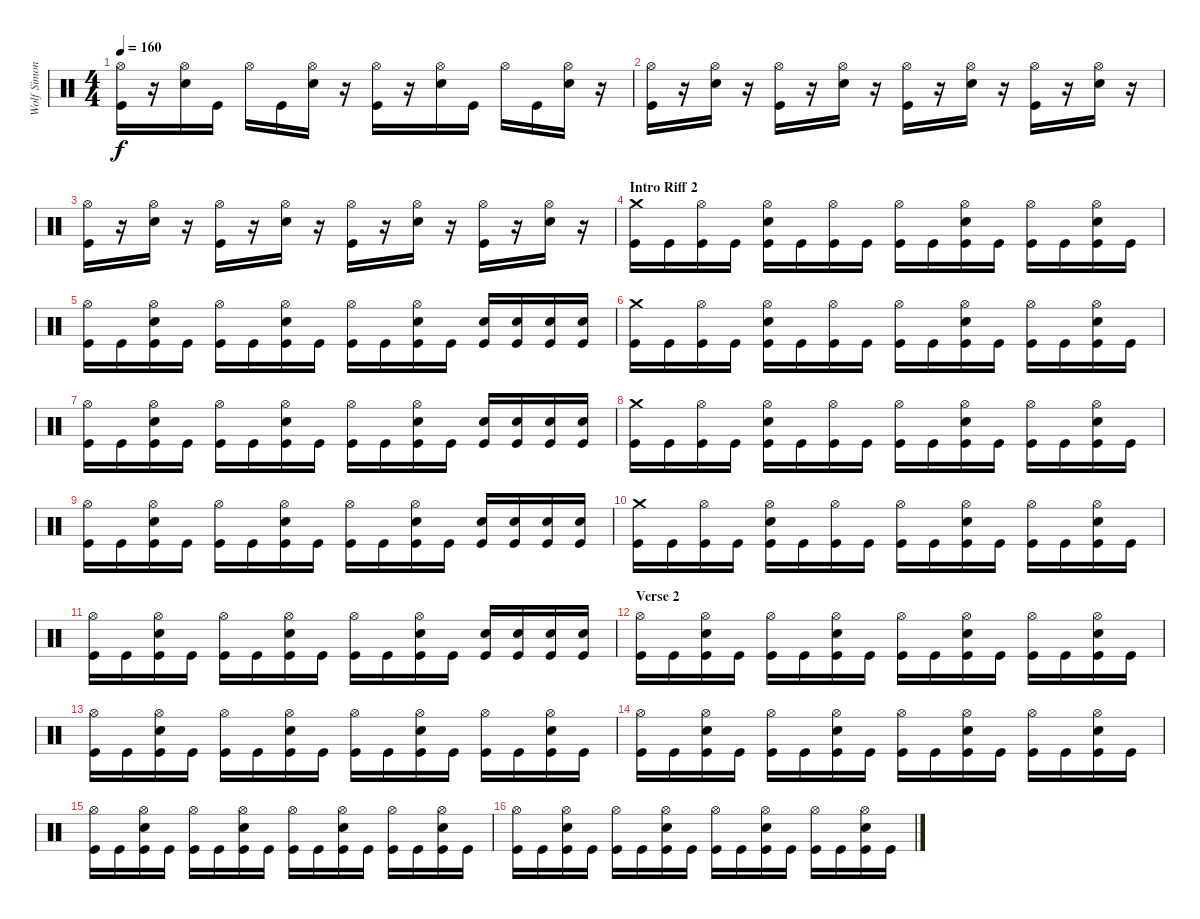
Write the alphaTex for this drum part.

\track ("Wolf Simons" "Wolf Simon") {instrument percussion}
\staff {score}
\articulation defaults
\ts (4 4)
\tempo 160
\clef neutral
\ks c
("Hi-Hat (open)" "Kick (hit)").16{dy f} r.16 ("Hi-Hat (open)" "Electric Snare (hit)").16 "Kick (hit)".16 "Hi-Hat (open)".16 "Kick (hit)".16 ("Hi-Hat (open)" "Electric Snare (hit)").16 r.16 ("Hi-Hat (open)" "Kick (hit)").16 r.16 ("Hi-Hat (open)" "Electric Snare (hit)").16 "Kick (hit)".16 "Hi-Hat (open)".16 "Kick (hit)".16 ("Hi-Hat (open)" "Electric Snare (hit)").16 r.16 |
("Hi-Hat (open)" "Kick (hit)").16 r.16 ("Hi-Hat (open)" "Electric Snare (hit)").16 r.16 ("Hi-Hat (open)" "Kick (hit)").16 r.16 ("Hi-Hat (open)" "Electric Snare (hit)").16 r.16 ("Hi-Hat (open)" "Kick (hit)").16 r.16 ("Hi-Hat (open)" "Electric Snare (hit)").16 r.16 ("Hi-Hat (open)" "Kick (hit)").16 r.16 ("Hi-Hat (open)" "Electric Snare (hit)").16 r.16 |
("Hi-Hat (open)" "Kick (hit)").16 r.16 ("Hi-Hat (open)" "Electric Snare (hit)").16 r.16 ("Hi-Hat (open)" "Kick (hit)").16 r.16 ("Hi-Hat (open)" "Electric Snare (hit)").16 r.16 ("Hi-Hat (open)" "Kick (hit)").16 r.16 ("Hi-Hat (open)" "Electric Snare (hit)").16 r.16 ("Hi-Hat (open)" "Kick (hit)").16 r.16 ("Hi-Hat (open)" "Electric Snare (hit)").16 r.16 |
\section ("" "Intro Riff 2")
("Crash medium (hit)" "Kick (hit)").16 "Kick (hit)".16 ("Hi-Hat (open)" "Kick (hit)").16 "Kick (hit)".16 ("Hi-Hat (open)" "Electric Snare (hit)" "Kick (hit)").16 "Kick (hit)".16 ("Hi-Hat (open)" "Kick (hit)").16 "Kick (hit)".16 ("Hi-Hat (open)" "Kick (hit)").16 "Kick (hit)".16 ("Hi-Hat (open)" "Electric Snare (hit)" "Kick (hit)").16 "Kick (hit)".16 ("Hi-Hat (open)" "Kick (hit)").16 "Kick (hit)".16 ("Hi-Hat (open)" "Electric Snare (hit)" "Kick (hit)").16 "Kick (hit)".16 |
("Hi-Hat (open)" "Kick (hit)").16 "Kick (hit)".16 ("Hi-Hat (open)" "Electric Snare (hit)" "Kick (hit)").16 "Kick (hit)".16 ("Hi-Hat (open)" "Kick (hit)").16 "Kick (hit)".16 ("Hi-Hat (open)" "Electric Snare (hit)" "Kick (hit)").16 "Kick (hit)".16 ("Hi-Hat (open)" "Kick (hit)").16 "Kick (hit)".16 ("Hi-Hat (open)" "Electric Snare (hit)" "Kick (hit)").16 "Kick (hit)".16 ("Electric Snare (hit)" "Kick (hit)").16 ("Electric Snare (hit)" "Kick (hit)").16 ("Electric Snare (hit)" "Kick (hit)").16 ("Electric Snare (hit)" "Kick (hit)").16 |
("Crash medium (hit)" "Kick (hit)").16 "Kick (hit)".16 ("Hi-Hat (open)" "Kick (hit)").16 "Kick (hit)".16 ("Hi-Hat (open)" "Electric Snare (hit)" "Kick (hit)").16 "Kick (hit)".16 ("Hi-Hat (open)" "Kick (hit)").16 "Kick (hit)".16 ("Hi-Hat (open)" "Kick (hit)").16 "Kick (hit)".16 ("Hi-Hat (open)" "Electric Snare (hit)" "Kick (hit)").16 "Kick (hit)".16 ("Hi-Hat (open)" "Kick (hit)").16 "Kick (hit)".16 ("Hi-Hat (open)" "Electric Snare (hit)" "Kick (hit)").16 "Kick (hit)".16 |
("Hi-Hat (open)" "Kick (hit)").16 "Kick (hit)".16 ("Hi-Hat (open)" "Electric Snare (hit)" "Kick (hit)").16 "Kick (hit)".16 ("Hi-Hat (open)" "Kick (hit)").16 "Kick (hit)".16 ("Hi-Hat (open)" "Electric Snare (hit)" "Kick (hit)").16 "Kick (hit)".16 ("Hi-Hat (open)" "Kick (hit)").16 "Kick (hit)".16 ("Hi-Hat (open)" "Electric Snare (hit)" "Kick (hit)").16 "Kick (hit)".16 ("Electric Snare (hit)" "Kick (hit)").16 ("Electric Snare (hit)" "Kick (hit)").16 ("Electric Snare (hit)" "Kick (hit)").16 ("Electric Snare (hit)" "Kick (hit)").16 |
("Crash medium (hit)" "Kick (hit)").16 "Kick (hit)".16 ("Hi-Hat (open)" "Kick (hit)").16 "Kick (hit)".16 ("Hi-Hat (open)" "Electric Snare (hit)" "Kick (hit)").16 "Kick (hit)".16 ("Hi-Hat (open)" "Kick (hit)").16 "Kick (hit)".16 ("Hi-Hat (open)" "Kick (hit)").16 "Kick (hit)".16 ("Hi-Hat (open)" "Electric Snare (hit)" "Kick (hit)").16 "Kick (hit)".16 ("Hi-Hat (open)" "Kick (hit)").16 "Kick (hit)".16 ("Hi-Hat (open)" "Electric Snare (hit)" "Kick (hit)").16 "Kick (hit)".16 |
("Hi-Hat (open)" "Kick (hit)").16 "Kick (hit)".16 ("Hi-Hat (open)" "Electric Snare (hit)" "Kick (hit)").16 "Kick (hit)".16 ("Hi-Hat (open)" "Kick (hit)").16 "Kick (hit)".16 ("Hi-Hat (open)" "Electric Snare (hit)" "Kick (hit)").16 "Kick (hit)".16 ("Hi-Hat (open)" "Kick (hit)").16 "Kick (hit)".16 ("Hi-Hat (open)" "Electric Snare (hit)" "Kick (hit)").16 "Kick (hit)".16 ("Electric Snare (hit)" "Kick (hit)").16 ("Electric Snare (hit)" "Kick (hit)").16 ("Electric Snare (hit)" "Kick (hit)").16 ("Electric Snare (hit)" "Kick (hit)").16 |
("Crash medium (hit)" "Kick (hit)").16 "Kick (hit)".16 ("Hi-Hat (open)" "Kick (hit)").16 "Kick (hit)".16 ("Hi-Hat (open)" "Electric Snare (hit)" "Kick (hit)").16 "Kick (hit)".16 ("Hi-Hat (open)" "Kick (hit)").16 "Kick (hit)".16 ("Hi-Hat (open)" "Kick (hit)").16 "Kick (hit)".16 ("Hi-Hat (open)" "Electric Snare (hit)" "Kick (hit)").16 "Kick (hit)".16 ("Hi-Hat (open)" "Kick (hit)").16 "Kick (hit)".16 ("Hi-Hat (open)" "Electric Snare (hit)" "Kick (hit)").16 "Kick (hit)".16 |
("Hi-Hat (open)" "Kick (hit)").16 "Kick (hit)".16 ("Hi-Hat (open)" "Electric Snare (hit)" "Kick (hit)").16 "Kick (hit)".16 ("Hi-Hat (open)" "Kick (hit)").16 "Kick (hit)".16 ("Hi-Hat (open)" "Electric Snare (hit)" "Kick (hit)").16 "Kick (hit)".16 ("Hi-Hat (open)" "Kick (hit)").16 "Kick (hit)".16 ("Hi-Hat (open)" "Electric Snare (hit)" "Kick (hit)").16 "Kick (hit)".16 ("Electric Snare (hit)" "Kick (hit)").16 ("Electric Snare (hit)" "Kick (hit)").16 ("Electric Snare (hit)" "Kick (hit)").16 ("Electric Snare (hit)" "Kick (hit)").16 |
\section ("" "Verse 2")
("Hi-Hat (open)" "Kick (hit)").16 "Kick (hit)".16 ("Hi-Hat (open)" "Electric Snare (hit)" "Kick (hit)").16 "Kick (hit)".16 ("Hi-Hat (open)" "Kick (hit)").16 "Kick (hit)".16 ("Hi-Hat (open)" "Electric Snare (hit)" "Kick (hit)").16 "Kick (hit)".16 ("Hi-Hat (open)" "Kick (hit)").16 "Kick (hit)".16 ("Hi-Hat (open)" "Electric Snare (hit)" "Kick (hit)").16 "Kick (hit)".16 ("Hi-Hat (open)" "Kick (hit)").16 "Kick (hit)".16 ("Hi-Hat (open)" "Electric Snare (hit)" "Kick (hit)").16 "Kick (hit)".16 |
("Hi-Hat (open)" "Kick (hit)").16 "Kick (hit)".16 ("Hi-Hat (open)" "Electric Snare (hit)" "Kick (hit)").16 "Kick (hit)".16 ("Hi-Hat (open)" "Kick (hit)").16 "Kick (hit)".16 ("Hi-Hat (open)" "Electric Snare (hit)" "Kick (hit)").16 "Kick (hit)".16 ("Hi-Hat (open)" "Kick (hit)").16 "Kick (hit)".16 ("Hi-Hat (open)" "Electric Snare (hit)" "Kick (hit)").16 "Kick (hit)".16 ("Hi-Hat (open)" "Kick (hit)").16 "Kick (hit)".16 ("Hi-Hat (open)" "Electric Snare (hit)" "Kick (hit)").16 "Kick (hit)".16 |
("Hi-Hat (open)" "Kick (hit)").16 "Kick (hit)".16 ("Hi-Hat (open)" "Electric Snare (hit)" "Kick (hit)").16 "Kick (hit)".16 ("Hi-Hat (open)" "Kick (hit)").16 "Kick (hit)".16 ("Hi-Hat (open)" "Electric Snare (hit)" "Kick (hit)").16 "Kick (hit)".16 ("Hi-Hat (open)" "Kick (hit)").16 "Kick (hit)".16 ("Hi-Hat (open)" "Electric Snare (hit)" "Kick (hit)").16 "Kick (hit)".16 ("Hi-Hat (open)" "Kick (hit)").16 "Kick (hit)".16 ("Hi-Hat (open)" "Electric Snare (hit)" "Kick (hit)").16 "Kick (hit)".16 |
("Hi-Hat (open)" "Kick (hit)").16 "Kick (hit)".16 ("Hi-Hat (open)" "Electric Snare (hit)" "Kick (hit)").16 "Kick (hit)".16 ("Hi-Hat (open)" "Kick (hit)").16 "Kick (hit)".16 ("Hi-Hat (open)" "Electric Snare (hit)" "Kick (hit)").16 "Kick (hit)".16 ("Hi-Hat (open)" "Kick (hit)").16 "Kick (hit)".16 ("Hi-Hat (open)" "Electric Snare (hit)" "Kick (hit)").16 "Kick (hit)".16 ("Hi-Hat (open)" "Kick (hit)").16 "Kick (hit)".16 ("Hi-Hat (open)" "Electric Snare (hit)" "Kick (hit)").16 "Kick (hit)".16 |
("Hi-Hat (open)" "Kick (hit)").16 "Kick (hit)".16 ("Hi-Hat (open)" "Electric Snare (hit)" "Kick (hit)").16 "Kick (hit)".16 ("Hi-Hat (open)" "Kick (hit)").16 "Kick (hit)".16 ("Hi-Hat (open)" "Electric Snare (hit)" "Kick (hit)").16 "Kick (hit)".16 ("Hi-Hat (open)" "Kick (hit)").16 "Kick (hit)".16 ("Hi-Hat (open)" "Electric Snare (hit)" "Kick (hit)").16 "Kick (hit)".16 ("Hi-Hat (open)" "Kick (hit)").16 "Kick (hit)".16 ("Hi-Hat (open)" "Electric Snare (hit)" "Kick (hit)").16 "Kick (hit)".16
